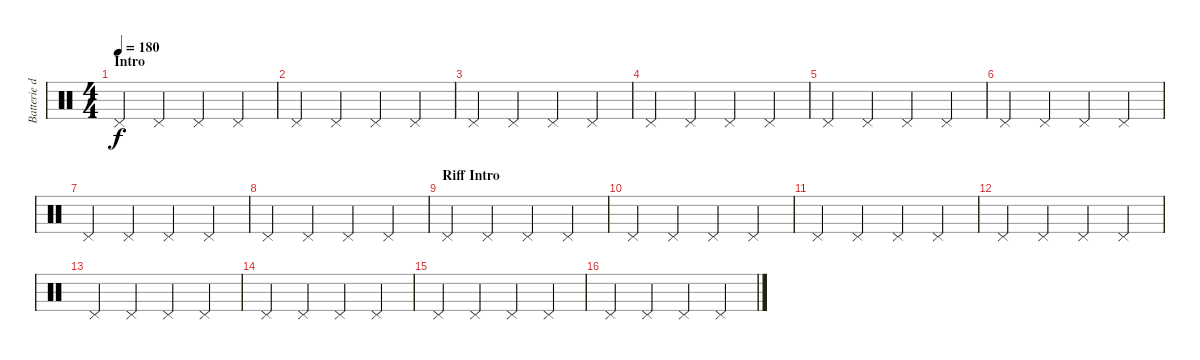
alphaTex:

\track ("Batterie début" "Batterie d") {instrument percussion}
\staff {score}
\articulation defaults
\ts (4 4)
\section ("" "Intro")
\tempo 180
\clef neutral
\ks c "Pedal Hi-Hat (hit)".4{dy f volume 8 balance 16} "Pedal Hi-Hat (hit)".4 "Pedal Hi-Hat (hit)".4 "Pedal Hi-Hat (hit)".4
|
"Pedal Hi-Hat (hit)".4 "Pedal Hi-Hat (hit)".4 "Pedal Hi-Hat (hit)".4 "Pedal Hi-Hat (hit)".4 |
"Pedal Hi-Hat (hit)".4 "Pedal Hi-Hat (hit)".4 "Pedal Hi-Hat (hit)".4 "Pedal Hi-Hat (hit)".4 |
"Pedal Hi-Hat (hit)".4 "Pedal Hi-Hat (hit)".4 "Pedal Hi-Hat (hit)".4 "Pedal Hi-Hat (hit)".4 |
"Pedal Hi-Hat (hit)".4 "Pedal Hi-Hat (hit)".4 "Pedal Hi-Hat (hit)".4 "Pedal Hi-Hat (hit)".4 |
"Pedal Hi-Hat (hit)".4 "Pedal Hi-Hat (hit)".4 "Pedal Hi-Hat (hit)".4 "Pedal Hi-Hat (hit)".4 |
"Pedal Hi-Hat (hit)".4 "Pedal Hi-Hat (hit)".4 "Pedal Hi-Hat (hit)".4 "Pedal Hi-Hat (hit)".4 |
"Pedal Hi-Hat (hit)".4 "Pedal Hi-Hat (hit)".4 "Pedal Hi-Hat (hit)".4 "Pedal Hi-Hat (hit)".4 |
\section ("" "Riff Intro")
"Pedal Hi-Hat (hit)".4 "Pedal Hi-Hat (hit)".4 "Pedal Hi-Hat (hit)".4 "Pedal Hi-Hat (hit)".4 |
"Pedal Hi-Hat (hit)".4 "Pedal Hi-Hat (hit)".4 "Pedal Hi-Hat (hit)".4 "Pedal Hi-Hat (hit)".4 |
"Pedal Hi-Hat (hit)".4 "Pedal Hi-Hat (hit)".4 "Pedal Hi-Hat (hit)".4 "Pedal Hi-Hat (hit)".4 |
"Pedal Hi-Hat (hit)".4 "Pedal Hi-Hat (hit)".4 "Pedal Hi-Hat (hit)".4 "Pedal Hi-Hat (hit)".4 |
"Pedal Hi-Hat (hit)".4 "Pedal Hi-Hat (hit)".4 "Pedal Hi-Hat (hit)".4 "Pedal Hi-Hat (hit)".4 |
"Pedal Hi-Hat (hit)".4 "Pedal Hi-Hat (hit)".4 "Pedal Hi-Hat (hit)".4 "Pedal Hi-Hat (hit)".4 |
"Pedal Hi-Hat (hit)".4 "Pedal Hi-Hat (hit)".4 "Pedal Hi-Hat (hit)".4 "Pedal Hi-Hat (hit)".4 |
"Pedal Hi-Hat (hit)".4 "Pedal Hi-Hat (hit)".4 "Pedal Hi-Hat (hit)".4 "Pedal Hi-Hat (hit)".4
